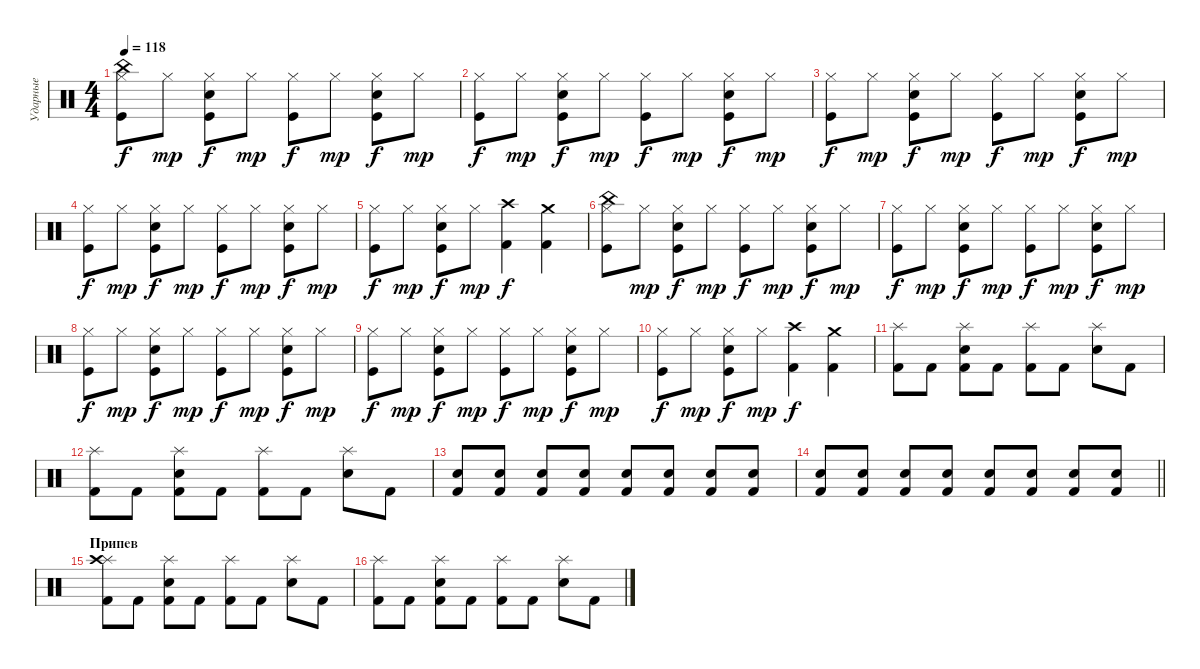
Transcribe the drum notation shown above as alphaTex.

\track ("Ударные" "Ударные") {instrument percussion}
\staff {score}
\articulation defaults
\ts (4 4)
\tempo 118
\clef neutral
\ks c
("Hi-Hat (closed)" "Kick (hit)" "China (hit)").8{dy f} "Hi-Hat (closed)".8{dy mp} ("Hi-Hat (closed)" "Kick (hit)" "Electric Snare (hit)").8{dy f} "Hi-Hat (closed)".8{dy mp} ("Hi-Hat (closed)" "Kick (hit)").8{dy f} "Hi-Hat (closed)".8{dy mp} ("Hi-Hat (closed)" "Kick (hit)" "Electric Snare (hit)").8{dy f} "Hi-Hat (closed)".8{dy mp} |
("Hi-Hat (closed)" "Kick (hit)").8{dy f} "Hi-Hat (closed)".8{dy mp} ("Hi-Hat (closed)" "Kick (hit)" "Electric Snare (hit)").8{dy f} "Hi-Hat (closed)".8{dy mp} ("Hi-Hat (closed)" "Kick (hit)").8{dy f} "Hi-Hat (closed)".8{dy mp} ("Hi-Hat (closed)" "Kick (hit)" "Electric Snare (hit)").8{dy f} "Hi-Hat (closed)".8{dy mp} |
("Hi-Hat (closed)" "Kick (hit)").8{dy f} "Hi-Hat (closed)".8{dy mp} ("Hi-Hat (closed)" "Kick (hit)" "Electric Snare (hit)").8{dy f} "Hi-Hat (closed)".8{dy mp} ("Hi-Hat (closed)" "Kick (hit)").8{dy f} "Hi-Hat (closed)".8{dy mp} ("Hi-Hat (closed)" "Kick (hit)" "Electric Snare (hit)").8{dy f} "Hi-Hat (closed)".8{dy mp} |
("Hi-Hat (closed)" "Kick (hit)").8{dy f} "Hi-Hat (closed)".8{dy mp} ("Hi-Hat (closed)" "Kick (hit)" "Electric Snare (hit)").8{dy f} "Hi-Hat (closed)".8{dy mp} ("Hi-Hat (closed)" "Kick (hit)").8{dy f} "Hi-Hat (closed)".8{dy mp} ("Hi-Hat (closed)" "Kick (hit)" "Electric Snare (hit)").8{dy f} "Hi-Hat (closed)".8{dy mp} |
("Hi-Hat (closed)" "Kick (hit)").8{dy f} "Hi-Hat (closed)".8{dy mp} ("Hi-Hat (closed)" "Kick (hit)" "Electric Snare (hit)").8{dy f} "Hi-Hat (closed)".8{dy mp} ("Kick (hit) 2" "Crash high (hit)").4{dy f} ("Kick (hit) 2" "Crash medium (hit)").4 |
("Hi-Hat (closed)" "Kick (hit)" "China (hit)").8 "Hi-Hat (closed)".8{dy mp} ("Hi-Hat (closed)" "Kick (hit)" "Electric Snare (hit)").8{dy f} "Hi-Hat (closed)".8{dy mp} ("Hi-Hat (closed)" "Kick (hit)").8{dy f} "Hi-Hat (closed)".8{dy mp} ("Hi-Hat (closed)" "Kick (hit)" "Electric Snare (hit)").8{dy f} "Hi-Hat (closed)".8{dy mp} |
("Hi-Hat (closed)" "Kick (hit)").8{dy f} "Hi-Hat (closed)".8{dy mp} ("Hi-Hat (closed)" "Kick (hit)" "Electric Snare (hit)").8{dy f} "Hi-Hat (closed)".8{dy mp} ("Hi-Hat (closed)" "Kick (hit)").8{dy f} "Hi-Hat (closed)".8{dy mp} ("Hi-Hat (closed)" "Kick (hit)" "Electric Snare (hit)").8{dy f} "Hi-Hat (closed)".8{dy mp} |
("Hi-Hat (closed)" "Kick (hit)").8{dy f} "Hi-Hat (closed)".8{dy mp} ("Hi-Hat (closed)" "Kick (hit)" "Electric Snare (hit)").8{dy f} "Hi-Hat (closed)".8{dy mp} ("Hi-Hat (closed)" "Kick (hit)").8{dy f} "Hi-Hat (closed)".8{dy mp} ("Hi-Hat (closed)" "Kick (hit)" "Electric Snare (hit)").8{dy f} "Hi-Hat (closed)".8{dy mp} |
("Hi-Hat (closed)" "Kick (hit)").8{dy f} "Hi-Hat (closed)".8{dy mp} ("Hi-Hat (closed)" "Kick (hit)" "Electric Snare (hit)").8{dy f} "Hi-Hat (closed)".8{dy mp} ("Hi-Hat (closed)" "Kick (hit)").8{dy f} "Hi-Hat (closed)".8{dy mp} ("Hi-Hat (closed)" "Kick (hit)" "Electric Snare (hit)").8{dy f} "Hi-Hat (closed)".8{dy mp} |
("Hi-Hat (closed)" "Kick (hit)").8{dy f} "Hi-Hat (closed)".8{dy mp} ("Hi-Hat (closed)" "Kick (hit)" "Electric Snare (hit)").8{dy f} "Hi-Hat (closed)".8{dy mp} ("Kick (hit) 2" "Crash high (hit)").4{dy f} ("Kick (hit) 2" "Crash medium (hit)").4 |
("Splash (hit)" "Kick (hit) 2").8 "Kick (hit) 2".8 ("Splash (hit)" "Kick (hit) 2" "Electric Snare (hit)").8 "Kick (hit) 2".8 ("Splash (hit)" "Kick (hit) 2").8 "Kick (hit) 2".8 ("Splash (hit)" "Electric Snare (hit)").8 "Kick (hit) 2".8 |
("Splash (hit)" "Kick (hit) 2").8 "Kick (hit) 2".8 ("Splash (hit)" "Kick (hit) 2" "Electric Snare (hit)").8 "Kick (hit) 2".8 ("Splash (hit)" "Kick (hit) 2").8 "Kick (hit) 2".8 ("Splash (hit)" "Electric Snare (hit)").8 "Kick (hit) 2".8 |
("Kick (hit) 2" "Electric Snare (hit)").8 ("Kick (hit) 2" "Electric Snare (hit)").8 ("Kick (hit) 2" "Electric Snare (hit)").8 ("Kick (hit) 2" "Electric Snare (hit)").8 ("Kick (hit) 2" "Electric Snare (hit)").8 ("Kick (hit) 2" "Electric Snare (hit)").8 ("Kick (hit) 2" "Electric Snare (hit)").8 ("Kick (hit) 2" "Electric Snare (hit)").8 |
\barLineRight lightlight
("Kick (hit) 2" "Electric Snare (hit)").8 ("Kick (hit) 2" "Electric Snare (hit)").8 ("Kick (hit) 2" "Electric Snare (hit)").8 ("Kick (hit) 2" "Electric Snare (hit)").8 ("Kick (hit) 2" "Electric Snare (hit)").8 ("Kick (hit) 2" "Electric Snare (hit)").8 ("Kick (hit) 2" "Electric Snare (hit)").8 ("Kick (hit) 2" "Electric Snare (hit)").8 |
\section ("" "Припев")
("Splash (hit)" "Kick (hit) 2" "Crash high (hit)").8 "Kick (hit) 2".8 ("Splash (hit)" "Kick (hit) 2" "Electric Snare (hit)").8 "Kick (hit) 2".8 ("Splash (hit)" "Kick (hit) 2").8 "Kick (hit) 2".8 ("Splash (hit)" "Electric Snare (hit)").8 "Kick (hit) 2".8 |
("Splash (hit)" "Kick (hit) 2").8 "Kick (hit) 2".8 ("Splash (hit)" "Kick (hit) 2" "Electric Snare (hit)").8 "Kick (hit) 2".8 ("Splash (hit)" "Kick (hit) 2").8 "Kick (hit) 2".8 ("Splash (hit)" "Electric Snare (hit)").8 "Kick (hit) 2".8
